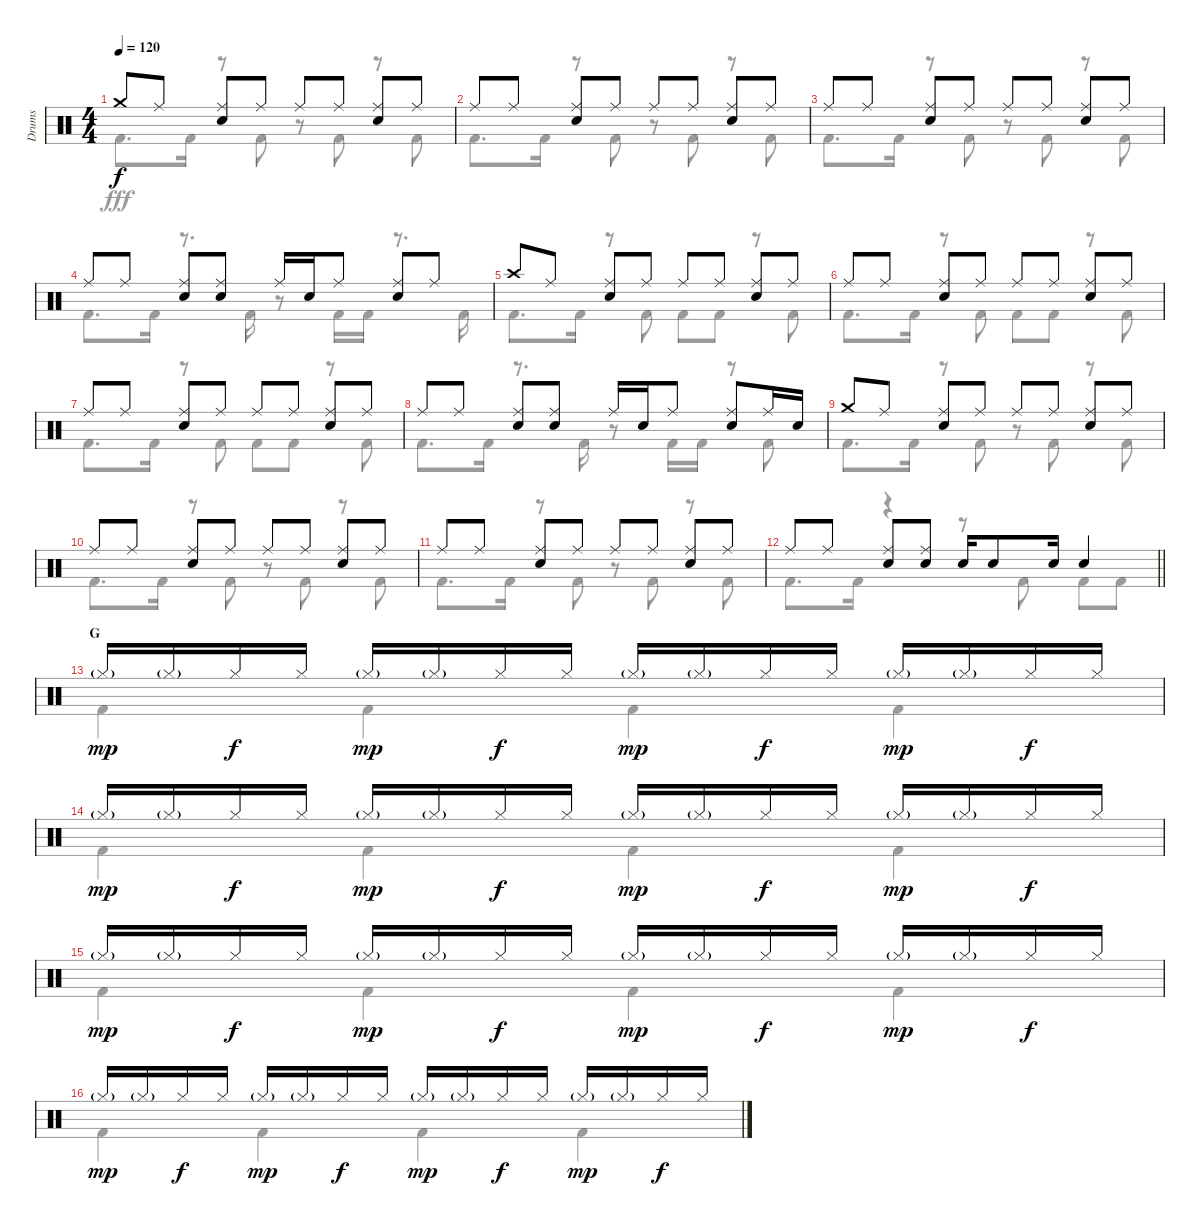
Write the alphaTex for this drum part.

\track ("Drums" "Drums") {instrument percussion}
\staff {score}
\articulation defaults
\voice
\ts (4 4)
\tempo 120
\clef neutral
\ks c "Crash medium (hit)".8{dy f} "Ride (middle)".8
("Ride (middle)" "Snare (hit) 2").8 "Ride (middle)".8 "Ride (middle)".8 "Ride (middle)".8 ("Ride (middle)" "Snare (hit) 2").8 "Ride (middle)".8 |
"Ride (middle)".8 "Ride (middle)".8 ("Ride (middle)" "Snare (hit) 2").8 "Ride (middle)".8 "Ride (middle)".8 "Ride (middle)".8 ("Ride (middle)" "Snare (hit) 2").8 "Ride (middle)".8 |
"Ride (middle)".8 "Ride (middle)".8 ("Ride (middle)" "Snare (hit) 2").8 "Ride (middle)".8 "Ride (middle)".8 "Ride (middle)".8 ("Ride (middle)" "Snare (hit) 2").8 "Ride (middle)".8 |
"Ride (middle)".8 "Ride (middle)".8 ("Ride (middle)" "Snare (hit) 2").8 ("Ride (middle)" "Snare (hit) 2").8 "Ride (middle)".16 "Snare (hit) 2".16 "Ride (middle)".8 ("Ride (middle)" "Snare (hit) 2").8 "Ride (middle)".8 |
"Crash high (hit)".8 "Ride (middle)".8 ("Ride (middle)" "Snare (hit) 2").8 "Ride (middle)".8 "Ride (middle)".8 "Ride (middle)".8 ("Ride (middle)" "Snare (hit) 2").8 "Ride (middle)".8 |
"Ride (middle)".8 "Ride (middle)".8 ("Ride (middle)" "Snare (hit) 2").8 "Ride (middle)".8 "Ride (middle)".8 "Ride (middle)".8 ("Ride (middle)" "Snare (hit) 2").8 "Ride (middle)".8 |
"Ride (middle)".8 "Ride (middle)".8 ("Ride (middle)" "Snare (hit) 2").8 "Ride (middle)".8 "Ride (middle)".8 "Ride (middle)".8 ("Ride (middle)" "Snare (hit) 2").8 "Ride (middle)".8 |
"Ride (middle)".8 "Ride (middle)".8 ("Ride (middle)" "Snare (hit) 2").8 ("Ride (middle)" "Snare (hit) 2").8 "Ride (middle)".16 "Snare (hit) 2".16 "Ride (middle)".8 ("Ride (middle)" "Snare (hit) 2").8 "Ride (middle)".16 "Snare (hit) 2".16 |
"Crash medium (hit)".8 "Ride (middle)".8 ("Ride (middle)" "Snare (hit) 2").8 "Ride (middle)".8 "Ride (middle)".8 "Ride (middle)".8 ("Ride (middle)" "Snare (hit) 2").8 "Ride (middle)".8 |
"Ride (middle)".8 "Ride (middle)".8 ("Ride (middle)" "Snare (hit) 2").8 "Ride (middle)".8 "Ride (middle)".8 "Ride (middle)".8 ("Ride (middle)" "Snare (hit) 2").8 "Ride (middle)".8 |
"Ride (middle)".8 "Ride (middle)".8 ("Ride (middle)" "Snare (hit) 2").8 "Ride (middle)".8 "Ride (middle)".8 "Ride (middle)".8 ("Ride (middle)" "Snare (hit) 2").8 "Ride (middle)".8 |
\barLineRight lightlight "Ride (middle)".8 "Ride (middle)".8
("Ride (middle)" "Snare (hit) 2").8 ("Ride (middle)" "Snare (hit) 2").8 "Snare (hit) 2".16 "Snare (hit) 2".8 "Snare (hit) 2".16 "Snare (hit) 2".4 |
\section ("" "G")
"Hi-Hat (closed)"{g}.16{dy mp} "Hi-Hat (closed)"{g}.16 "Hi-Hat (closed)".16{dy f} "Hi-Hat (closed)".16 "Hi-Hat (closed)"{g}.16{dy mp} "Hi-Hat (closed)"{g}.16 "Hi-Hat (closed)".16{dy f} "Hi-Hat (closed)".16 "Hi-Hat (closed)"{g}.16{dy mp} "Hi-Hat (closed)"{g}.16 "Hi-Hat (closed)".16{dy f} "Hi-Hat (closed)".16 "Hi-Hat (closed)"{g}.16{dy mp} "Hi-Hat (closed)"{g}.16 "Hi-Hat (closed)".16{dy f} "Hi-Hat (closed)".16 |
"Hi-Hat (closed)"{g}.16{dy mp} "Hi-Hat (closed)"{g}.16 "Hi-Hat (closed)".16{dy f} "Hi-Hat (closed)".16 "Hi-Hat (closed)"{g}.16{dy mp} "Hi-Hat (closed)"{g}.16 "Hi-Hat (closed)".16{dy f} "Hi-Hat (closed)".16 "Hi-Hat (closed)"{g}.16{dy mp} "Hi-Hat (closed)"{g}.16 "Hi-Hat (closed)".16{dy f} "Hi-Hat (closed)".16 "Hi-Hat (closed)"{g}.16{dy mp} "Hi-Hat (closed)"{g}.16 "Hi-Hat (closed)".16{dy f} "Hi-Hat (closed)".16 |
"Hi-Hat (closed)"{g}.16{dy mp} "Hi-Hat (closed)"{g}.16 "Hi-Hat (closed)".16{dy f} "Hi-Hat (closed)".16 "Hi-Hat (closed)"{g}.16{dy mp} "Hi-Hat (closed)"{g}.16 "Hi-Hat (closed)".16{dy f} "Hi-Hat (closed)".16 "Hi-Hat (closed)"{g}.16{dy mp} "Hi-Hat (closed)"{g}.16 "Hi-Hat (closed)".16{dy f} "Hi-Hat (closed)".16 "Hi-Hat (closed)"{g}.16{dy mp} "Hi-Hat (closed)"{g}.16 "Hi-Hat (closed)".16{dy f} "Hi-Hat (closed)".16 |
"Hi-Hat (closed)"{g}.16{dy mp} "Hi-Hat (closed)"{g}.16 "Hi-Hat (closed)".16{dy f} "Hi-Hat (closed)".16 "Hi-Hat (closed)"{g}.16{dy mp} "Hi-Hat (closed)"{g}.16 "Hi-Hat (closed)".16{dy f} "Hi-Hat (closed)".16 "Hi-Hat (closed)"{g}.16{dy mp} "Hi-Hat (closed)"{g}.16 "Hi-Hat (closed)".16{dy f} "Hi-Hat (closed)".16 "Hi-Hat (closed)"{g}.16{dy mp} "Hi-Hat (closed)"{g}.16 "Hi-Hat (closed)".16{dy f} "Hi-Hat (closed)".16
\voice
\clef neutral
\ottava regular
\simile none
\ks c "Kick (hit) 2".8{d dy fff} "Kick (hit) 2".16
r.8 "Kick (hit) 2".8 r.8 "Kick (hit) 2".8 r.8 "Kick (hit) 2".8 |
"Kick (hit) 2".8{d} "Kick (hit) 2".16 r.8 "Kick (hit) 2".8 r.8 "Kick (hit) 2".8 r.8 "Kick (hit) 2".8 |
"Kick (hit) 2".8{d} "Kick (hit) 2".16 r.8 "Kick (hit) 2".8 r.8 "Kick (hit) 2".8 r.8 "Kick (hit) 2".8 |
"Kick (hit) 2".8{d} "Kick (hit) 2".16 r.8{d} "Kick (hit) 2".16 r.8 "Kick (hit) 2".16 "Kick (hit) 2".16 r.8{d} "Kick (hit) 2".16 |
"Kick (hit) 2".8{d} "Kick (hit) 2".16 r.8 "Kick (hit) 2".8 "Kick (hit) 2".8 "Kick (hit) 2".8 r.8 "Kick (hit) 2".8 |
"Kick (hit) 2".8{d} "Kick (hit) 2".16 r.8 "Kick (hit) 2".8 "Kick (hit) 2".8 "Kick (hit) 2".8 r.8 "Kick (hit) 2".8 |
"Kick (hit) 2".8{d} "Kick (hit) 2".16 r.8 "Kick (hit) 2".8 "Kick (hit) 2".8 "Kick (hit) 2".8 r.8 "Kick (hit) 2".8 |
"Kick (hit) 2".8{d} "Kick (hit) 2".16 r.8{d} "Kick (hit) 2".16 r.8 "Kick (hit) 2".16 "Kick (hit) 2".16 r.8 "Kick (hit) 2".8 |
"Kick (hit) 2".8{d} "Kick (hit) 2".16 r.8 "Kick (hit) 2".8 r.8 "Kick (hit) 2".8 r.8 "Kick (hit) 2".8 |
"Kick (hit) 2".8{d} "Kick (hit) 2".16 r.8 "Kick (hit) 2".8 r.8 "Kick (hit) 2".8 r.8 "Kick (hit) 2".8 |
"Kick (hit) 2".8{d} "Kick (hit) 2".16 r.8 "Kick (hit) 2".8 r.8 "Kick (hit) 2".8 r.8 "Kick (hit) 2".8 |
\barLineRight lightlight "Kick (hit) 2".8{d} "Kick (hit) 2".16
r.4 r.8 "Kick (hit) 2".8 "Kick (hit) 2".8 "Kick (hit) 2".8 |
"Kick (hit) 2".4 "Kick (hit) 2".4 "Kick (hit) 2".4 "Kick (hit) 2".4 |
"Kick (hit) 2".4 "Kick (hit) 2".4 "Kick (hit) 2".4 "Kick (hit) 2".4 |
"Kick (hit) 2".4 "Kick (hit) 2".4 "Kick (hit) 2".4 "Kick (hit) 2".4 |
"Kick (hit) 2".4 "Kick (hit) 2".4 "Kick (hit) 2".4 "Kick (hit) 2".4
